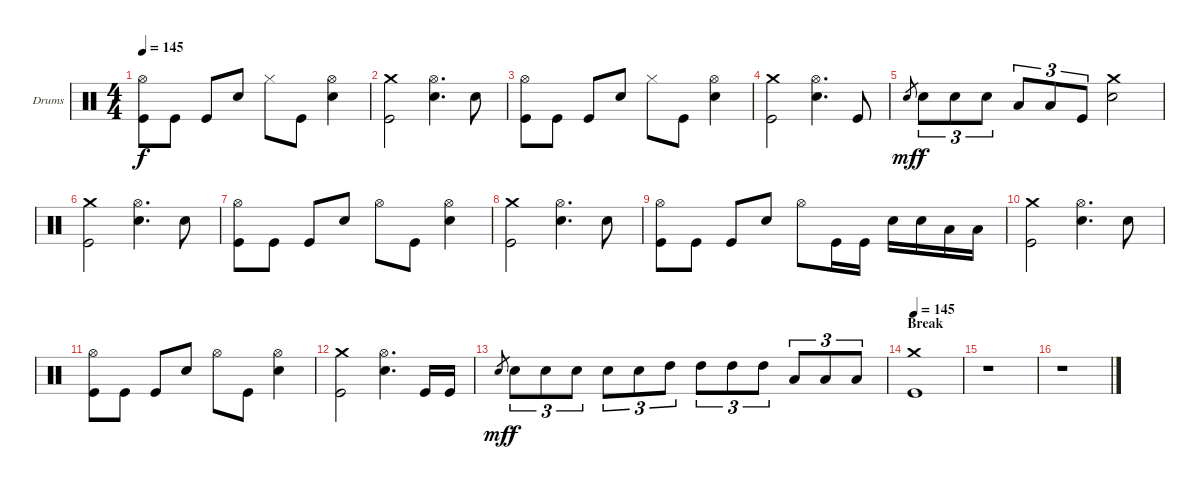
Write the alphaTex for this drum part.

\bracketExtendMode groupsimilarinstruments
\firstSystemTrackNameOrientation horizontal
\otherSystemsTrackNameOrientation horizontal
\track ("Drumkit" "Drums") {instrument percussion}
\staff {score}
\articulation defaults
\ts (4 4)
\tempo 145
\clef neutral
\ks c
("Hi-Hat (open)" "Kick (hit)").8{dy f} "Kick (hit)".8 "Kick (hit)".8 "Snare (hit) 2".8 "Hi-Hat (closed)".8 "Kick (hit)".8 ("Hi-Hat (open)" "Snare (hit) 2").4 |
("Crash medium (hit)" "Kick (hit)").2 ("Hi-Hat (open)" "Snare (hit) 2").4{d} "Snare (hit) 2".8 |
("Hi-Hat (open)" "Kick (hit)").8 "Kick (hit)".8 "Kick (hit)".8 "Snare (hit) 2".8 "Hi-Hat (closed)".8 "Kick (hit)".8 ("Hi-Hat (open)" "Snare (hit) 2").4 |
("Crash medium (hit)" "Kick (hit)").2 ("Hi-Hat (open)" "Snare (hit) 2").4{d} "Kick (hit)".8 |
"Snare (hit) 2".8{gr dy mf} "Snare (hit) 2".8{tu (3 2) dy f} "Snare (hit) 2".8{tu (3 2)} "Snare (hit) 2".8{tu (3 2)} "Low Tom (hit)".8{tu (3 2)} "Low Tom (hit)".8{tu (3 2)} "Kick (hit)".8{tu (3 2)} ("Crash medium (hit)" "Snare (hit) 2").2 |
("Crash medium (hit)" "Kick (hit)").2 ("Hi-Hat (open)" "Snare (hit) 2").4{d} "Snare (hit) 2".8 |
("Hi-Hat (open)" "Kick (hit)").8 "Kick (hit)".8 "Kick (hit)".8 "Snare (hit) 2".8 "Hi-Hat (open)".8 "Kick (hit)".8 ("Hi-Hat (open)" "Snare (hit) 2").4 |
("Crash medium (hit)" "Kick (hit)").2 ("Hi-Hat (open)" "Snare (hit) 2").4{d} "Snare (hit) 2".8 |
("Hi-Hat (open)" "Kick (hit)").8 "Kick (hit)".8 "Kick (hit)".8 "Snare (hit) 2".8 "Hi-Hat (open)".8 "Kick (hit)".16 "Kick (hit)".16 "Snare (hit) 2".16 "Snare (hit) 2".16 "Low Tom (hit)".16 "Low Tom (hit)".16 |
("Crash medium (hit)" "Kick (hit)").2 ("Hi-Hat (open)" "Snare (hit) 2").4{d} "Snare (hit) 2".8 |
("Hi-Hat (open)" "Kick (hit)").8 "Kick (hit)".8 "Kick (hit)".8 "Snare (hit) 2".8 "Hi-Hat (open)".8 "Kick (hit)".8 ("Hi-Hat (open)" "Snare (hit) 2").4 |
("Crash medium (hit)" "Kick (hit)").2 ("Hi-Hat (open)" "Snare (hit) 2").4{d} "Kick (hit)".16 "Kick (hit)".16 |
"Snare (hit) 2".8{gr dy mf} "Snare (hit) 2".8{tu (3 2) dy f} "Snare (hit) 2".8{tu (3 2)} "Snare (hit) 2".8{tu (3 2)} "Snare (hit) 2".8{tu (3 2)} "Snare (hit) 2".8{tu (3 2)} "High Tom (hit)".8{tu (3 2)} "High Tom (hit)".8{tu (3 2)} "High Tom (hit)".8{tu (3 2)} "High Tom (hit)".8{tu (3 2)} "Low Tom (hit)".8{tu (3 2)} "Low Tom (hit)".8{tu (3 2)} "Low Tom (hit)".8{tu (3 2)} |
\section ("" "Break")
\tempo 145
("Crash medium (hit)" "Kick (hit)").1 |
r.1 |
r.1
